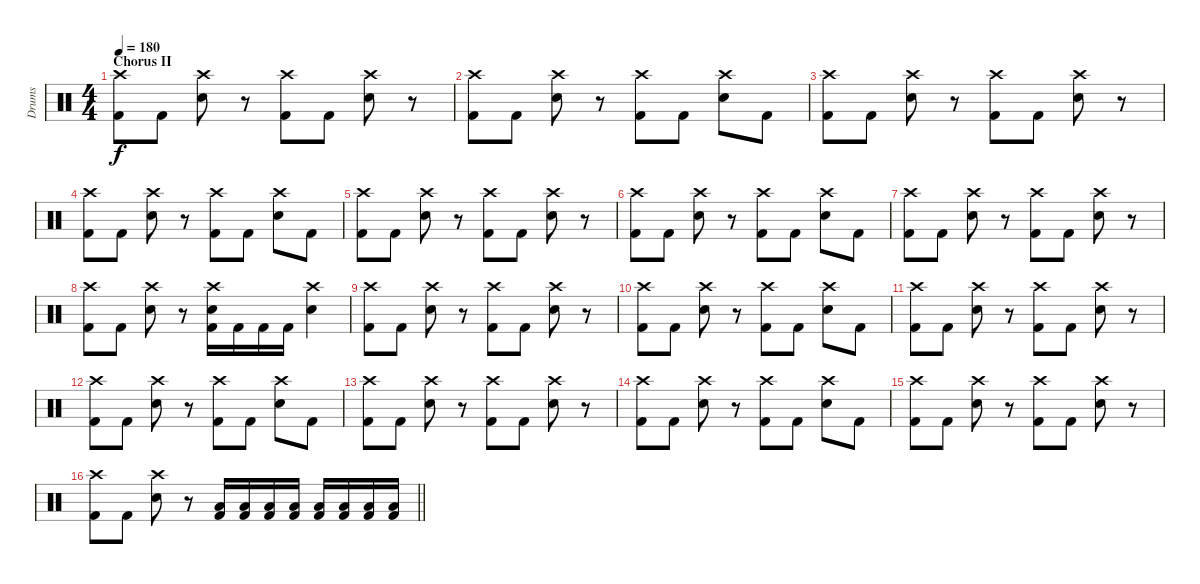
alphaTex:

\track ("Drums" "Drums") {instrument percussion}
\staff {score}
\articulation defaults
\ts (4 4)
\section ("" "Chorus II")
\tempo 180
\clef neutral
\ks c
("Crash high (hit)" "Kick (hit) 2").8{dy f} "Kick (hit) 2".8 ("Crash high (hit)" "Electric Snare (hit)").8 r.8 ("Crash high (hit)" "Kick (hit) 2").8 "Kick (hit) 2".8 ("Crash high (hit)" "Electric Snare (hit)").8 r.8 |
("Crash high (hit)" "Kick (hit) 2").8 "Kick (hit) 2".8 ("Crash high (hit)" "Electric Snare (hit)").8 r.8 ("Crash high (hit)" "Kick (hit) 2").8 "Kick (hit) 2".8 ("Crash high (hit)" "Electric Snare (hit)").8 "Kick (hit) 2".8 |
("Crash high (hit)" "Kick (hit) 2").8 "Kick (hit) 2".8 ("Crash high (hit)" "Electric Snare (hit)").8 r.8 ("Crash high (hit)" "Kick (hit) 2").8 "Kick (hit) 2".8 ("Crash high (hit)" "Electric Snare (hit)").8 r.8 |
("Crash high (hit)" "Kick (hit) 2").8 "Kick (hit) 2".8 ("Crash high (hit)" "Electric Snare (hit)").8 r.8 ("Crash high (hit)" "Kick (hit) 2").8 "Kick (hit) 2".8 ("Crash high (hit)" "Electric Snare (hit)").8 "Kick (hit) 2".8 |
("Crash high (hit)" "Kick (hit) 2").8 "Kick (hit) 2".8 ("Crash high (hit)" "Electric Snare (hit)").8 r.8 ("Crash high (hit)" "Kick (hit) 2").8 "Kick (hit) 2".8 ("Crash high (hit)" "Electric Snare (hit)").8 r.8 |
("Crash high (hit)" "Kick (hit) 2").8 "Kick (hit) 2".8 ("Crash high (hit)" "Electric Snare (hit)").8 r.8 ("Crash high (hit)" "Kick (hit) 2").8 "Kick (hit) 2".8 ("Crash high (hit)" "Electric Snare (hit)").8 "Kick (hit) 2".8 |
("Crash high (hit)" "Kick (hit) 2").8 "Kick (hit) 2".8 ("Crash high (hit)" "Electric Snare (hit)").8 r.8 ("Crash high (hit)" "Kick (hit) 2").8 "Kick (hit) 2".8 ("Crash high (hit)" "Electric Snare (hit)").8 r.8 |
("Crash high (hit)" "Kick (hit) 2").8 "Kick (hit) 2".8 ("Crash high (hit)" "Electric Snare (hit)").8 r.8 ("Crash high (hit)" "Electric Snare (hit)" "Kick (hit) 2").16 "Kick (hit) 2".16 "Kick (hit) 2".16 "Kick (hit) 2".16 ("Crash high (hit)" "Electric Snare (hit)").4 |
("Crash high (hit)" "Kick (hit) 2").8 "Kick (hit) 2".8 ("Crash high (hit)" "Electric Snare (hit)").8 r.8 ("Crash high (hit)" "Kick (hit) 2").8 "Kick (hit) 2".8 ("Crash high (hit)" "Electric Snare (hit)").8 r.8 |
("Crash high (hit)" "Kick (hit) 2").8 "Kick (hit) 2".8 ("Crash high (hit)" "Electric Snare (hit)").8 r.8 ("Crash high (hit)" "Kick (hit) 2").8 "Kick (hit) 2".8 ("Crash high (hit)" "Electric Snare (hit)").8 "Kick (hit) 2".8 |
("Crash high (hit)" "Kick (hit) 2").8 "Kick (hit) 2".8 ("Crash high (hit)" "Electric Snare (hit)").8 r.8 ("Crash high (hit)" "Kick (hit) 2").8 "Kick (hit) 2".8 ("Crash high (hit)" "Electric Snare (hit)").8 r.8 |
("Crash high (hit)" "Kick (hit) 2").8 "Kick (hit) 2".8 ("Crash high (hit)" "Electric Snare (hit)").8 r.8 ("Crash high (hit)" "Kick (hit) 2").8 "Kick (hit) 2".8 ("Crash high (hit)" "Electric Snare (hit)").8 "Kick (hit) 2".8 |
("Crash high (hit)" "Kick (hit) 2").8 "Kick (hit) 2".8 ("Crash high (hit)" "Electric Snare (hit)").8 r.8 ("Crash high (hit)" "Kick (hit) 2").8 "Kick (hit) 2".8 ("Crash high (hit)" "Electric Snare (hit)").8 r.8 |
("Crash high (hit)" "Kick (hit) 2").8 "Kick (hit) 2".8 ("Crash high (hit)" "Electric Snare (hit)").8 r.8 ("Crash high (hit)" "Kick (hit) 2").8 "Kick (hit) 2".8 ("Crash high (hit)" "Electric Snare (hit)").8 "Kick (hit) 2".8 |
("Crash high (hit)" "Kick (hit) 2").8 "Kick (hit) 2".8 ("Crash high (hit)" "Electric Snare (hit)").8 r.8 ("Crash high (hit)" "Kick (hit) 2").8 "Kick (hit) 2".8 ("Crash high (hit)" "Electric Snare (hit)").8 r.8 |
\barLineRight lightlight
("Crash high (hit)" "Kick (hit) 2").8 "Kick (hit) 2".8 ("Crash high (hit)" "Electric Snare (hit)").8 r.8 ("Low Tom (hit)" "Kick (hit) 2").16 ("Low Tom (hit)" "Kick (hit) 2").16 ("Low Tom (hit)" "Kick (hit) 2").16 ("Low Tom (hit)" "Kick (hit) 2").16 ("Low Tom (hit)" "Kick (hit) 2").16 ("Low Tom (hit)" "Kick (hit) 2").16 ("Low Tom (hit)" "Kick (hit) 2").16 ("Low Tom (hit)" "Kick (hit) 2").16
